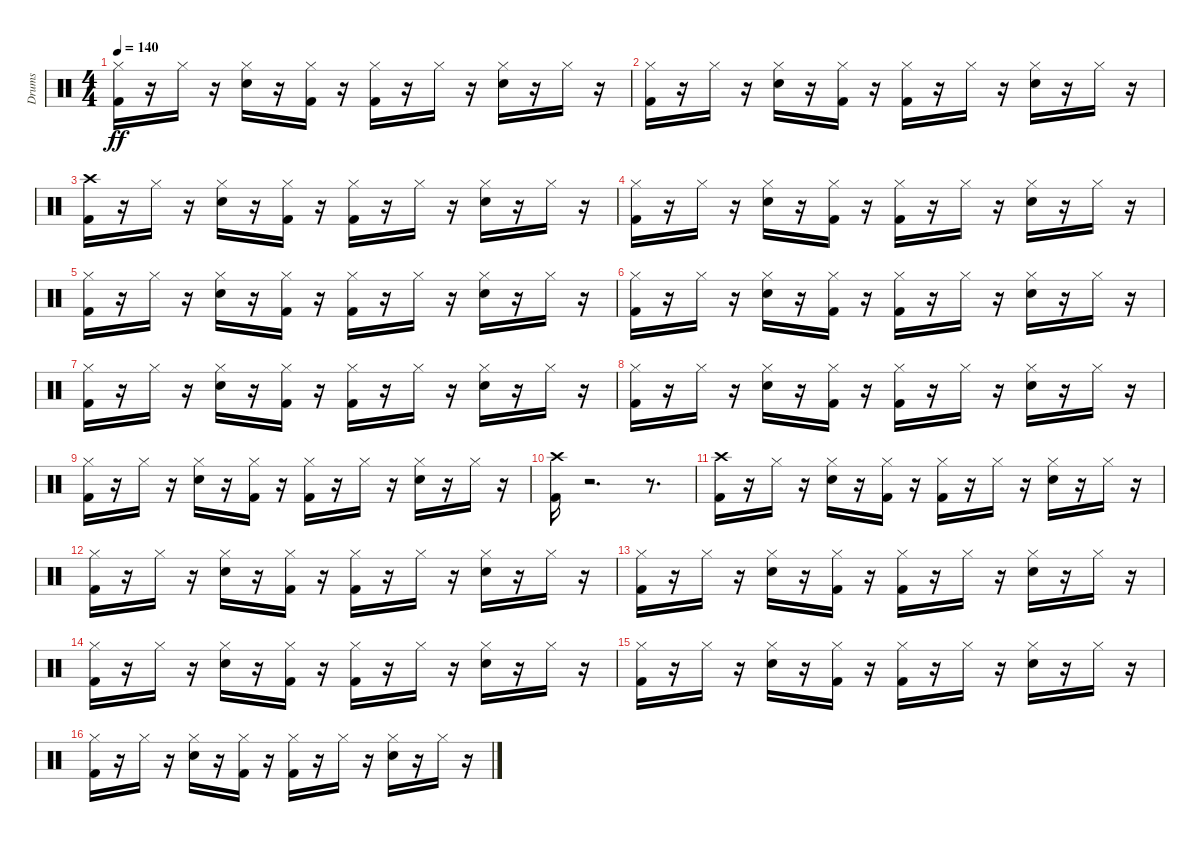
\track ("Drums" "Drums") {instrument percussion}
\staff {score}
\articulation defaults
\ts (4 4)
\tempo 140
\clef neutral
\ks c
("Hi-Hat (closed)" "Kick (hit) 2").16{dy ff} r.16 "Hi-Hat (closed)".16 r.16 ("Hi-Hat (closed)" "Snare (hit) 2").16 r.16 ("Hi-Hat (closed)" "Kick (hit) 2").16 r.16 ("Hi-Hat (closed)" "Kick (hit) 2").16 r.16 "Hi-Hat (closed)".16 r.16 ("Hi-Hat (closed)" "Snare (hit) 2").16 r.16 "Hi-Hat (closed)".16 r.16 |
("Hi-Hat (closed)" "Kick (hit) 2").16 r.16 "Hi-Hat (closed)".16 r.16 ("Hi-Hat (closed)" "Snare (hit) 2").16 r.16 ("Hi-Hat (closed)" "Kick (hit) 2").16 r.16 ("Hi-Hat (closed)" "Kick (hit) 2").16 r.16 "Hi-Hat (closed)".16 r.16 ("Hi-Hat (closed)" "Snare (hit) 2").16 r.16 "Hi-Hat (closed)".16 r.16 |
("Crash high (hit)" "Kick (hit) 2").16 r.16 "Hi-Hat (closed)".16 r.16 ("Hi-Hat (closed)" "Snare (hit) 2").16 r.16 ("Hi-Hat (closed)" "Kick (hit) 2").16 r.16 ("Hi-Hat (closed)" "Kick (hit) 2").16 r.16 "Hi-Hat (closed)".16 r.16 ("Hi-Hat (closed)" "Snare (hit) 2").16 r.16 "Hi-Hat (closed)".16 r.16 |
("Hi-Hat (closed)" "Kick (hit) 2").16 r.16 "Hi-Hat (closed)".16 r.16 ("Hi-Hat (closed)" "Snare (hit) 2").16 r.16 ("Hi-Hat (closed)" "Kick (hit) 2").16 r.16 ("Hi-Hat (closed)" "Kick (hit) 2").16 r.16 "Hi-Hat (closed)".16 r.16 ("Hi-Hat (closed)" "Snare (hit) 2").16 r.16 "Hi-Hat (closed)".16 r.16 |
("Hi-Hat (closed)" "Kick (hit) 2").16 r.16 "Hi-Hat (closed)".16 r.16 ("Hi-Hat (closed)" "Snare (hit) 2").16 r.16 ("Hi-Hat (closed)" "Kick (hit) 2").16 r.16 ("Hi-Hat (closed)" "Kick (hit) 2").16 r.16 "Hi-Hat (closed)".16 r.16 ("Hi-Hat (closed)" "Snare (hit) 2").16 r.16 "Hi-Hat (closed)".16 r.16 |
("Hi-Hat (closed)" "Kick (hit) 2").16 r.16 "Hi-Hat (closed)".16 r.16 ("Hi-Hat (closed)" "Snare (hit) 2").16 r.16 ("Hi-Hat (closed)" "Kick (hit) 2").16 r.16 ("Hi-Hat (closed)" "Kick (hit) 2").16 r.16 "Hi-Hat (closed)".16 r.16 ("Hi-Hat (closed)" "Snare (hit) 2").16 r.16 "Hi-Hat (closed)".16 r.16 |
("Hi-Hat (closed)" "Kick (hit) 2").16 r.16 "Hi-Hat (closed)".16 r.16 ("Hi-Hat (closed)" "Snare (hit) 2").16 r.16 ("Hi-Hat (closed)" "Kick (hit) 2").16 r.16 ("Hi-Hat (closed)" "Kick (hit) 2").16 r.16 "Hi-Hat (closed)".16 r.16 ("Hi-Hat (closed)" "Snare (hit) 2").16 r.16 "Hi-Hat (closed)".16 r.16 |
("Hi-Hat (closed)" "Kick (hit) 2").16 r.16 "Hi-Hat (closed)".16 r.16 ("Hi-Hat (closed)" "Snare (hit) 2").16 r.16 ("Hi-Hat (closed)" "Kick (hit) 2").16 r.16 ("Hi-Hat (closed)" "Kick (hit) 2").16 r.16 "Hi-Hat (closed)".16 r.16 ("Hi-Hat (closed)" "Snare (hit) 2").16 r.16 "Hi-Hat (closed)".16 r.16 |
("Hi-Hat (closed)" "Kick (hit) 2").16 r.16 "Hi-Hat (closed)".16 r.16 ("Hi-Hat (closed)" "Snare (hit) 2").16 r.16 ("Hi-Hat (closed)" "Kick (hit) 2").16 r.16 ("Hi-Hat (closed)" "Kick (hit) 2").16 r.16 "Hi-Hat (closed)".16 r.16 ("Hi-Hat (closed)" "Snare (hit) 2").16 r.16 "Hi-Hat (closed)".16 r.16 |
("Crash high (hit)" "Kick (hit) 2").16 r.2{d} r.8{d} |
("Crash high (hit)" "Kick (hit) 2").16 r.16 "Hi-Hat (closed)".16 r.16 ("Hi-Hat (closed)" "Snare (hit) 2").16 r.16 ("Hi-Hat (closed)" "Kick (hit) 2").16 r.16 ("Hi-Hat (closed)" "Kick (hit) 2").16 r.16 "Hi-Hat (closed)".16 r.16 ("Hi-Hat (closed)" "Snare (hit) 2").16 r.16 "Hi-Hat (closed)".16 r.16 |
("Hi-Hat (closed)" "Kick (hit) 2").16 r.16 "Hi-Hat (closed)".16 r.16 ("Hi-Hat (closed)" "Snare (hit) 2").16 r.16 ("Hi-Hat (closed)" "Kick (hit) 2").16 r.16 ("Hi-Hat (closed)" "Kick (hit) 2").16 r.16 "Hi-Hat (closed)".16 r.16 ("Hi-Hat (closed)" "Snare (hit) 2").16 r.16 "Hi-Hat (closed)".16 r.16 |
("Hi-Hat (closed)" "Kick (hit) 2").16 r.16 "Hi-Hat (closed)".16 r.16 ("Hi-Hat (closed)" "Snare (hit) 2").16 r.16 ("Hi-Hat (closed)" "Kick (hit) 2").16 r.16 ("Hi-Hat (closed)" "Kick (hit) 2").16 r.16 "Hi-Hat (closed)".16 r.16 ("Hi-Hat (closed)" "Snare (hit) 2").16 r.16 "Hi-Hat (closed)".16 r.16 |
("Hi-Hat (closed)" "Kick (hit) 2").16 r.16 "Hi-Hat (closed)".16 r.16 ("Hi-Hat (closed)" "Snare (hit) 2").16 r.16 ("Hi-Hat (closed)" "Kick (hit) 2").16 r.16 ("Hi-Hat (closed)" "Kick (hit) 2").16 r.16 "Hi-Hat (closed)".16 r.16 ("Hi-Hat (closed)" "Snare (hit) 2").16 r.16 "Hi-Hat (closed)".16 r.16 |
("Hi-Hat (closed)" "Kick (hit) 2").16 r.16 "Hi-Hat (closed)".16 r.16 ("Hi-Hat (closed)" "Snare (hit) 2").16 r.16 ("Hi-Hat (closed)" "Kick (hit) 2").16 r.16 ("Hi-Hat (closed)" "Kick (hit) 2").16 r.16 "Hi-Hat (closed)".16 r.16 ("Hi-Hat (closed)" "Snare (hit) 2").16 r.16 "Hi-Hat (closed)".16 r.16 |
("Hi-Hat (closed)" "Kick (hit) 2").16 r.16 "Hi-Hat (closed)".16 r.16 ("Hi-Hat (closed)" "Snare (hit) 2").16 r.16 ("Hi-Hat (closed)" "Kick (hit) 2").16 r.16 ("Hi-Hat (closed)" "Kick (hit) 2").16 r.16 "Hi-Hat (closed)".16 r.16 ("Hi-Hat (closed)" "Snare (hit) 2").16 r.16 "Hi-Hat (closed)".16 r.16
